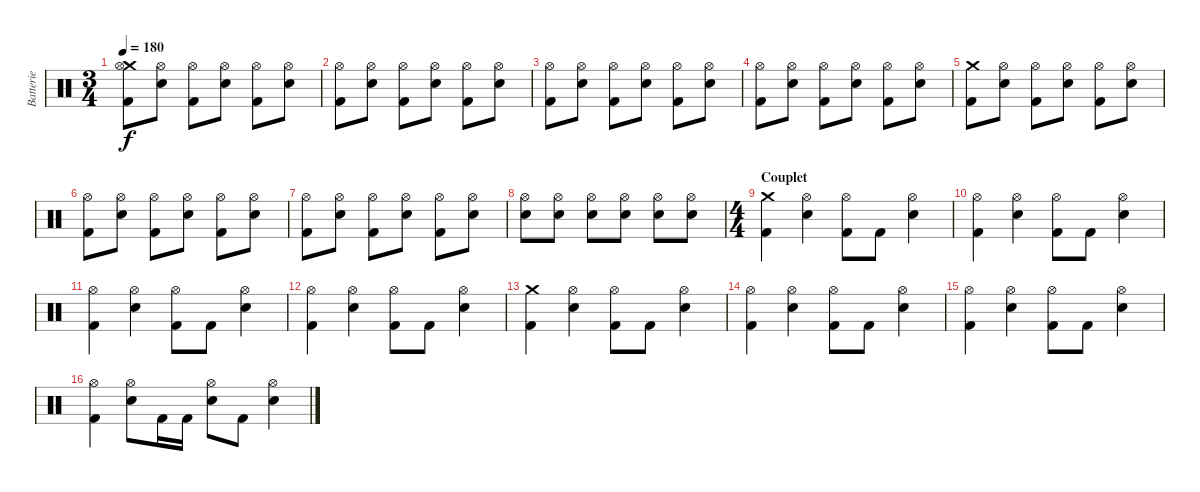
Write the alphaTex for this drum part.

\track ("Batterie" "Batterie") {instrument percussion}
\staff {score}
\articulation defaults
\ts (3 4)
\tempo 180
\clef neutral
\ks c
("Crash medium (hit)" "Hi-Hat (open)" "Kick (hit) 2").8{dy f} ("Hi-Hat (open)" "Electric Snare (hit)").8 ("Hi-Hat (open)" "Kick (hit) 2").8 ("Hi-Hat (open)" "Electric Snare (hit)").8 ("Hi-Hat (open)" "Kick (hit) 2").8 ("Hi-Hat (open)" "Electric Snare (hit)").8 |
("Hi-Hat (open)" "Kick (hit) 2").8 ("Hi-Hat (open)" "Electric Snare (hit)").8 ("Hi-Hat (open)" "Kick (hit) 2").8 ("Hi-Hat (open)" "Electric Snare (hit)").8 ("Hi-Hat (open)" "Kick (hit) 2").8 ("Hi-Hat (open)" "Electric Snare (hit)").8 |
("Hi-Hat (open)" "Kick (hit) 2").8 ("Hi-Hat (open)" "Electric Snare (hit)").8 ("Hi-Hat (open)" "Kick (hit) 2").8 ("Hi-Hat (open)" "Electric Snare (hit)").8 ("Hi-Hat (open)" "Kick (hit) 2").8 ("Hi-Hat (open)" "Electric Snare (hit)").8 |
("Hi-Hat (open)" "Kick (hit) 2").8 ("Hi-Hat (open)" "Electric Snare (hit)").8 ("Hi-Hat (open)" "Kick (hit) 2").8 ("Hi-Hat (open)" "Electric Snare (hit)").8 ("Hi-Hat (open)" "Kick (hit) 2").8 ("Hi-Hat (open)" "Electric Snare (hit)").8 |
("Crash medium (hit)" "Kick (hit) 2").8 ("Hi-Hat (open)" "Electric Snare (hit)").8 ("Hi-Hat (open)" "Kick (hit) 2").8 ("Hi-Hat (open)" "Electric Snare (hit)").8 ("Hi-Hat (open)" "Kick (hit) 2").8 ("Hi-Hat (open)" "Electric Snare (hit)").8 |
("Hi-Hat (open)" "Kick (hit) 2").8 ("Hi-Hat (open)" "Electric Snare (hit)").8 ("Hi-Hat (open)" "Kick (hit) 2").8 ("Hi-Hat (open)" "Electric Snare (hit)").8 ("Hi-Hat (open)" "Kick (hit) 2").8 ("Hi-Hat (open)" "Electric Snare (hit)").8 |
("Hi-Hat (open)" "Kick (hit) 2").8 ("Hi-Hat (open)" "Electric Snare (hit)").8 ("Hi-Hat (open)" "Kick (hit) 2").8 ("Hi-Hat (open)" "Electric Snare (hit)").8 ("Hi-Hat (open)" "Kick (hit) 2").8 ("Hi-Hat (open)" "Electric Snare (hit)").8 |
("Hi-Hat (open)" "Electric Snare (hit)").8 ("Hi-Hat (open)" "Electric Snare (hit)").8 ("Hi-Hat (open)" "Electric Snare (hit)").8 ("Hi-Hat (open)" "Electric Snare (hit)").8 ("Hi-Hat (open)" "Electric Snare (hit)").8 ("Hi-Hat (open)" "Electric Snare (hit)").8 |
\ts (4 4)
\section ("" "Couplet")
("Crash medium (hit)" "Kick (hit) 2").4 ("Hi-Hat (open)" "Electric Snare (hit)").4 ("Hi-Hat (open)" "Kick (hit) 2").8 "Kick (hit) 2".8 ("Hi-Hat (open)" "Electric Snare (hit)").4 |
("Hi-Hat (open)" "Kick (hit) 2").4 ("Hi-Hat (open)" "Electric Snare (hit)").4 ("Hi-Hat (open)" "Kick (hit) 2").8 "Kick (hit) 2".8 ("Hi-Hat (open)" "Electric Snare (hit)").4 |
("Hi-Hat (open)" "Kick (hit) 2").4 ("Hi-Hat (open)" "Electric Snare (hit)").4 ("Hi-Hat (open)" "Kick (hit) 2").8 "Kick (hit) 2".8 ("Hi-Hat (open)" "Electric Snare (hit)").4 |
("Hi-Hat (open)" "Kick (hit) 2").4 ("Hi-Hat (open)" "Electric Snare (hit)").4 ("Hi-Hat (open)" "Kick (hit) 2").8 "Kick (hit) 2".8 ("Hi-Hat (open)" "Electric Snare (hit)").4 |
("Crash medium (hit)" "Kick (hit) 2").4 ("Hi-Hat (open)" "Electric Snare (hit)").4 ("Hi-Hat (open)" "Kick (hit) 2").8 "Kick (hit) 2".8 ("Hi-Hat (open)" "Electric Snare (hit)").4 |
("Hi-Hat (open)" "Kick (hit) 2").4 ("Hi-Hat (open)" "Electric Snare (hit)").4 ("Hi-Hat (open)" "Kick (hit) 2").8 "Kick (hit) 2".8 ("Hi-Hat (open)" "Electric Snare (hit)").4 |
("Hi-Hat (open)" "Kick (hit) 2").4 ("Hi-Hat (open)" "Electric Snare (hit)").4 ("Hi-Hat (open)" "Kick (hit) 2").8 "Kick (hit) 2".8 ("Hi-Hat (open)" "Electric Snare (hit)").4 |
("Hi-Hat (open)" "Kick (hit) 2").4 ("Hi-Hat (open)" "Electric Snare (hit)").8 "Kick (hit) 2".16 "Kick (hit) 2".16 ("Hi-Hat (open)" "Electric Snare (hit)").8 "Kick (hit) 2".8 ("Hi-Hat (open)" "Electric Snare (hit)").4
